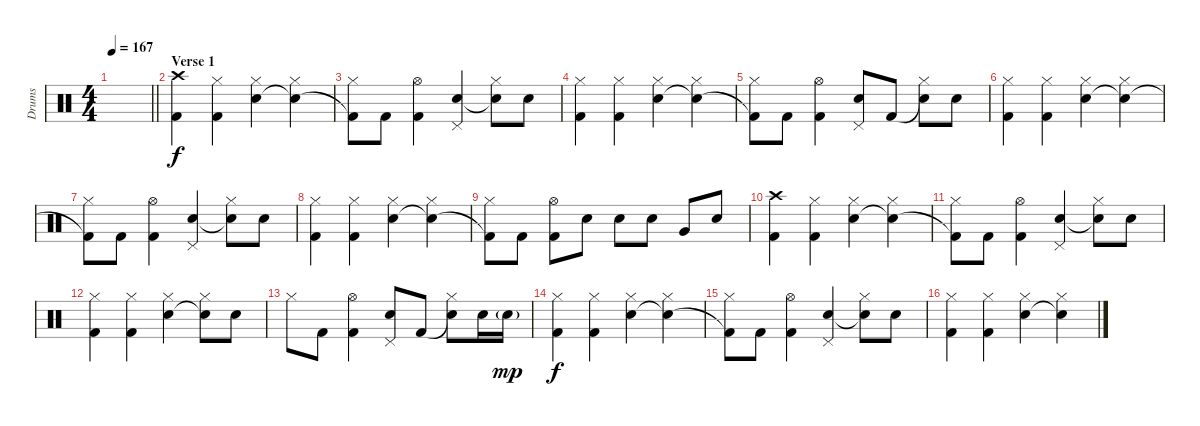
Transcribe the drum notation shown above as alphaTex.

\track ("Drums" "Drums") {instrument percussion}
\staff {score}
\articulation defaults
\ts (4 4)
\tempo 167
\clef neutral
\barLineRight lightlight
\ks c
|
\section ("" "Verse 1")
("Kick (hit) 2" "Crash high (hit)").4 ("Kick (hit) 2" "Hi-Hat (closed)").4 ("Electric Snare (hit)" "Hi-Hat (closed)").4 ("Snare (hit)"{t} "Hi-Hat (closed)").4 |
("Kick (hit) 2"{t} "Hi-Hat (closed)").8 "Kick (hit) 2".8 ("Kick (hit) 2" "Hi-Hat (open)").4 ("Electric Snare (hit)" "Pedal Hi-Hat (hit)").4 ("Snare (hit)"{t} "Hi-Hat (closed)").8 "Electric Snare (hit)".8 |
("Kick (hit) 2" "Hi-Hat (closed)").4 ("Kick (hit) 2" "Hi-Hat (closed)").4 ("Electric Snare (hit)" "Hi-Hat (closed)").4 ("Snare (hit)"{t} "Hi-Hat (closed)").4 |
("Kick (hit) 2"{t} "Hi-Hat (closed)").8 "Kick (hit) 2".8 ("Kick (hit) 2" "Hi-Hat (open)").4 ("Electric Snare (hit)" "Pedal Hi-Hat (hit)").8 "Kick (hit) 2".8 ("Snare (hit)"{t} "Hi-Hat (closed)").8 "Electric Snare (hit)".8 |
("Kick (hit) 2" "Hi-Hat (closed)").4 ("Kick (hit) 2" "Hi-Hat (closed)").4 ("Electric Snare (hit)" "Hi-Hat (closed)").4 ("Snare (hit)"{t} "Hi-Hat (closed)").4 |
("Kick (hit) 2"{t} "Hi-Hat (closed)").8 "Kick (hit) 2".8 ("Kick (hit) 2" "Hi-Hat (open)").4 ("Electric Snare (hit)" "Pedal Hi-Hat (hit)").4 ("Snare (hit)"{t} "Hi-Hat (closed)").8 "Electric Snare (hit)".8 |
("Kick (hit) 2" "Hi-Hat (closed)").4 ("Kick (hit) 2" "Hi-Hat (closed)").4 ("Electric Snare (hit)" "Hi-Hat (closed)").4 ("Snare (hit)"{t} "Hi-Hat (closed)").4 |
("Kick (hit) 2"{t} "Hi-Hat (closed)").8 "Kick (hit) 2".8 ("Kick (hit) 2" "Hi-Hat (open)").8 "Electric Snare (hit)".8 "Electric Snare (hit)".8 "Electric Snare (hit)".8 "Very Low Tom (hit)".8 "Electric Snare (hit)".8 |
("Kick (hit) 2" "Crash high (hit)").4 ("Kick (hit) 2" "Hi-Hat (closed)").4 ("Electric Snare (hit)" "Hi-Hat (closed)").4 ("Snare (hit)"{t} "Hi-Hat (closed)").4 |
("Kick (hit) 2"{t} "Hi-Hat (closed)").8 "Kick (hit) 2".8 ("Kick (hit) 2" "Hi-Hat (open)").4 ("Electric Snare (hit)" "Pedal Hi-Hat (hit)").4 ("Snare (hit)"{t} "Hi-Hat (closed)").8 "Electric Snare (hit)".8 |
("Kick (hit) 2" "Hi-Hat (closed)").4 ("Kick (hit) 2" "Hi-Hat (closed)").4 ("Electric Snare (hit)" "Hi-Hat (closed)").4 ("Snare (hit)"{t} "Hi-Hat (closed)").8 "Electric Snare (hit)".8 |
"Hi-Hat (closed)".8 "Kick (hit) 2".8 ("Kick (hit) 2" "Hi-Hat (open)").4 ("Electric Snare (hit)" "Pedal Hi-Hat (hit)").8 "Kick (hit) 2".8 ("Snare (hit)"{t} "Hi-Hat (closed)").8 "Electric Snare (hit)".16 "Electric Snare (hit)"{g}.16{dy mp} |
("Kick (hit) 2" "Hi-Hat (closed)").4{dy f} ("Kick (hit) 2" "Hi-Hat (closed)").4 ("Electric Snare (hit)" "Hi-Hat (closed)").4 ("Snare (hit)"{t} "Hi-Hat (closed)").4 |
("Kick (hit) 2"{t} "Hi-Hat (closed)").8 "Kick (hit) 2".8 ("Kick (hit) 2" "Hi-Hat (open)").4 ("Electric Snare (hit)" "Pedal Hi-Hat (hit)").4 ("Snare (hit)"{t} "Hi-Hat (closed)").8 "Electric Snare (hit)".8 |
("Kick (hit) 2" "Hi-Hat (closed)").4 ("Kick (hit) 2" "Hi-Hat (closed)").4 ("Electric Snare (hit)" "Hi-Hat (closed)").4 ("Snare (hit)"{t} "Hi-Hat (closed)").4
